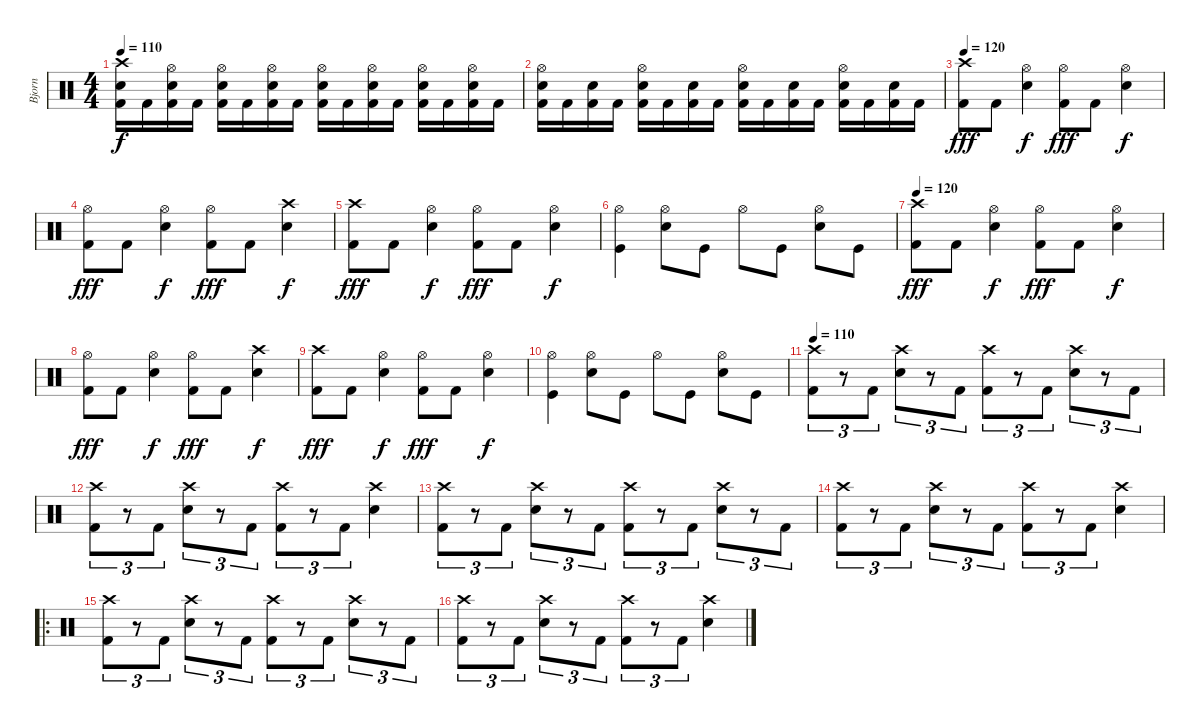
\track ("Bjorn " "Bjorn ") {instrument percussion}
\staff {score}
\articulation defaults
\ts (4 4)
\tempo 110
\clef neutral
\ks c
("Crash high (hit)" "Electric Snare (hit)" "Kick (hit) 2").16{dy f} "Kick (hit) 2".16 ("Hi-Hat (open)" "Electric Snare (hit)" "Kick (hit) 2").16 "Kick (hit) 2".16 ("Hi-Hat (open)" "Electric Snare (hit)" "Kick (hit) 2").16 "Kick (hit) 2".16 ("Hi-Hat (open)" "Electric Snare (hit)" "Kick (hit) 2").16 "Kick (hit) 2".16 ("Hi-Hat (open)" "Electric Snare (hit)" "Kick (hit) 2").16 "Kick (hit) 2".16 ("Hi-Hat (open)" "Electric Snare (hit)" "Kick (hit) 2").16 "Kick (hit) 2".16 ("Hi-Hat (open)" "Electric Snare (hit)" "Kick (hit) 2").16 "Kick (hit) 2".16 ("Hi-Hat (open)" "Electric Snare (hit)" "Kick (hit) 2").16 "Kick (hit) 2".16 |
("Hi-Hat (open)" "Electric Snare (hit)" "Kick (hit) 2").16 "Kick (hit) 2".16 ("Electric Snare (hit)" "Kick (hit) 2").16 "Kick (hit) 2".16 ("Hi-Hat (open)" "Electric Snare (hit)" "Kick (hit) 2").16 "Kick (hit) 2".16 ("Electric Snare (hit)" "Kick (hit) 2").16 "Kick (hit) 2".16 ("Hi-Hat (open)" "Electric Snare (hit)" "Kick (hit) 2").16 "Kick (hit) 2".16 ("Electric Snare (hit)" "Kick (hit) 2").16 "Kick (hit) 2".16 ("Hi-Hat (open)" "Electric Snare (hit)" "Kick (hit) 2").16 "Kick (hit) 2".16 ("Electric Snare (hit)" "Kick (hit) 2").16 "Kick (hit) 2".16 |
\tempo 120
("Crash high (hit)" "Kick (hit) 2").8{dy fff} "Kick (hit) 2".8 ("Hi-Hat (open)" "Electric Snare (hit)").4{dy f} ("Hi-Hat (open)" "Kick (hit) 2").8{dy fff} "Kick (hit) 2".8 ("Hi-Hat (open)" "Electric Snare (hit)").4{dy f} |
("Hi-Hat (open)" "Kick (hit) 2").8{dy fff} "Kick (hit) 2".8 ("Hi-Hat (open)" "Electric Snare (hit)").4{dy f} ("Hi-Hat (open)" "Kick (hit) 2").8{dy fff} "Kick (hit) 2".8 ("Crash high (hit)" "Electric Snare (hit)").4{dy f} |
("Crash high (hit)" "Kick (hit) 2").8{dy fff} "Kick (hit) 2".8 ("Hi-Hat (open)" "Electric Snare (hit)").4{dy f} ("Hi-Hat (open)" "Kick (hit) 2").8{dy fff} "Kick (hit) 2".8 ("Hi-Hat (open)" "Electric Snare (hit)").4{dy f} |
("Hi-Hat (open)" "Kick (hit)").4 ("Hi-Hat (open)" "Electric Snare (hit)").8 "Kick (hit)".8 "Hi-Hat (open)".8 "Kick (hit)".8 ("Hi-Hat (open)" "Electric Snare (hit)").8 "Kick (hit)".8 |
\tempo 120
("Crash high (hit)" "Kick (hit) 2").8{dy fff} "Kick (hit) 2".8 ("Hi-Hat (open)" "Electric Snare (hit)").4{dy f} ("Hi-Hat (open)" "Kick (hit) 2").8{dy fff} "Kick (hit) 2".8 ("Hi-Hat (open)" "Electric Snare (hit)").4{dy f} |
("Hi-Hat (open)" "Kick (hit) 2").8{dy fff} "Kick (hit) 2".8 ("Hi-Hat (open)" "Electric Snare (hit)").4{dy f} ("Hi-Hat (open)" "Kick (hit) 2").8{dy fff} "Kick (hit) 2".8 ("Crash high (hit)" "Electric Snare (hit)").4{dy f} |
("Crash high (hit)" "Kick (hit) 2").8{dy fff} "Kick (hit) 2".8 ("Hi-Hat (open)" "Electric Snare (hit)").4{dy f} ("Hi-Hat (open)" "Kick (hit) 2").8{dy fff} "Kick (hit) 2".8 ("Hi-Hat (open)" "Electric Snare (hit)").4{dy f} |
("Hi-Hat (open)" "Kick (hit)").4 ("Hi-Hat (open)" "Electric Snare (hit)").8 "Kick (hit)".8 "Hi-Hat (open)".8 "Kick (hit)".8 ("Hi-Hat (open)" "Electric Snare (hit)").8 "Kick (hit)".8 |
\tempo 110
("Crash high (hit)" "Kick (hit) 2").8{tu (3 2)} r.8{tu (3 2)} "Kick (hit) 2".8{tu (3 2)} ("Crash high (hit)" "Electric Snare (hit)").8{tu (3 2)} r.8{tu (3 2)} "Kick (hit) 2".8{tu (3 2)} ("Crash high (hit)" "Kick (hit) 2").8{tu (3 2)} r.8{tu (3 2)} "Kick (hit) 2".8{tu (3 2)} ("Crash high (hit)" "Electric Snare (hit)").8{tu (3 2)} r.8{tu (3 2)} "Kick (hit) 2".8{tu (3 2)} |
("Crash high (hit)" "Kick (hit) 2").8{tu (3 2)} r.8{tu (3 2)} "Kick (hit) 2".8{tu (3 2)} ("Crash high (hit)" "Electric Snare (hit)").8{tu (3 2)} r.8{tu (3 2)} "Kick (hit) 2".8{tu (3 2)} ("Crash high (hit)" "Kick (hit) 2").8{tu (3 2)} r.8{tu (3 2)} "Kick (hit) 2".8{tu (3 2)} ("Crash high (hit)" "Electric Snare (hit)").4 |
("Crash high (hit)" "Kick (hit) 2").8{tu (3 2)} r.8{tu (3 2)} "Kick (hit) 2".8{tu (3 2)} ("Crash high (hit)" "Electric Snare (hit)").8{tu (3 2)} r.8{tu (3 2)} "Kick (hit) 2".8{tu (3 2)} ("Crash high (hit)" "Kick (hit) 2").8{tu (3 2)} r.8{tu (3 2)} "Kick (hit) 2".8{tu (3 2)} ("Crash high (hit)" "Electric Snare (hit)").8{tu (3 2)} r.8{tu (3 2)} "Kick (hit) 2".8{tu (3 2)} |
("Crash high (hit)" "Kick (hit) 2").8{tu (3 2)} r.8{tu (3 2)} "Kick (hit) 2".8{tu (3 2)} ("Crash high (hit)" "Electric Snare (hit)").8{tu (3 2)} r.8{tu (3 2)} "Kick (hit) 2".8{tu (3 2)} ("Crash high (hit)" "Kick (hit) 2").8{tu (3 2)} r.8{tu (3 2)} "Kick (hit) 2".8{tu (3 2)} ("Crash high (hit)" "Electric Snare (hit)").4 |
\ro
("Crash high (hit)" "Kick (hit) 2").8{tu (3 2)} r.8{tu (3 2)} "Kick (hit) 2".8{tu (3 2)} ("Crash high (hit)" "Electric Snare (hit)").8{tu (3 2)} r.8{tu (3 2)} "Kick (hit) 2".8{tu (3 2)} ("Crash high (hit)" "Kick (hit) 2").8{tu (3 2)} r.8{tu (3 2)} "Kick (hit) 2".8{tu (3 2)} ("Crash high (hit)" "Electric Snare (hit)").8{tu (3 2)} r.8{tu (3 2)} "Kick (hit) 2".8{tu (3 2)} |
("Crash high (hit)" "Kick (hit) 2").8{tu (3 2)} r.8{tu (3 2)} "Kick (hit) 2".8{tu (3 2)} ("Crash high (hit)" "Electric Snare (hit)").8{tu (3 2)} r.8{tu (3 2)} "Kick (hit) 2".8{tu (3 2)} ("Crash high (hit)" "Kick (hit) 2").8{tu (3 2)} r.8{tu (3 2)} "Kick (hit) 2".8{tu (3 2)} ("Crash high (hit)" "Electric Snare (hit)").4
